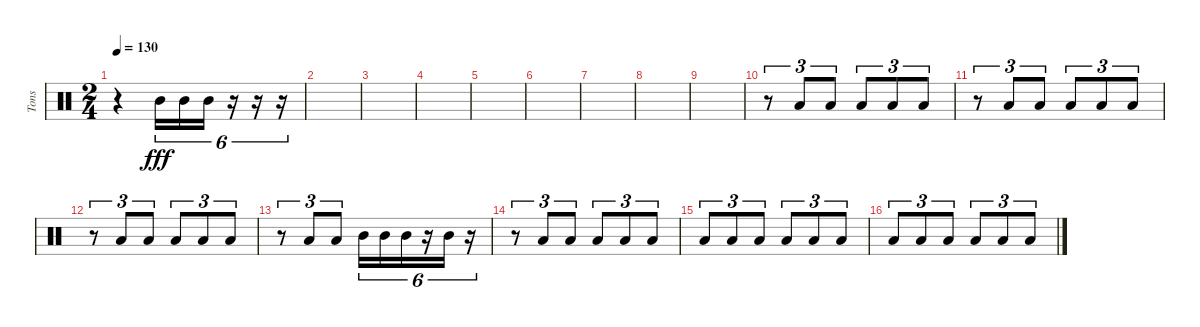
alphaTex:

\track ("Tons" "Tons") {instrument percussion}
\staff {score}
\articulation defaults
\ts (2 4)
\tempo 130
\clef neutral
\ks c
r.4{dy fff} "Mid Tom (hit)".16{tu (6 4)} "Mid Tom (hit)".16{tu (6 4)} "Mid Tom (hit)".16{tu (6 4)} r.16{tu (6 4)} r.16{tu (6 4)} r.16{tu (6 4)} |
|
|
|
|
|
|
|
|
r.8{tu (3 2)} "Low Floor Tom (hit)".8{tu (3 2)} "Low Floor Tom (hit)".8{tu (3 2)} "Low Floor Tom (hit)".8{tu (3 2)} "Low Floor Tom (hit)".8{tu (3 2)} "Low Floor Tom (hit)".8{tu (3 2)} |
r.8{tu (3 2)} "Low Floor Tom (hit)".8{tu (3 2)} "Low Floor Tom (hit)".8{tu (3 2)} "Low Floor Tom (hit)".8{tu (3 2)} "Low Floor Tom (hit)".8{tu (3 2)} "Low Floor Tom (hit)".8{tu (3 2)} |
r.8{tu (3 2)} "Low Floor Tom (hit)".8{tu (3 2)} "Low Floor Tom (hit)".8{tu (3 2)} "Low Floor Tom (hit)".8{tu (3 2)} "Low Floor Tom (hit)".8{tu (3 2)} "Low Floor Tom (hit)".8{tu (3 2)} |
r.8{tu (3 2)} "Low Floor Tom (hit)".8{tu (3 2)} "Low Floor Tom (hit)".8{tu (3 2)} "Mid Tom (hit)".16{tu (6 4)} "Mid Tom (hit)".16{tu (6 4)} "Mid Tom (hit)".16{tu (6 4)} r.16{tu (6 4)} "Mid Tom (hit)".16{tu (6 4)} r.16{tu (6 4)} |
r.8{tu (3 2)} "Low Floor Tom (hit)".8{tu (3 2)} "Low Floor Tom (hit)".8{tu (3 2)} "Low Floor Tom (hit)".8{tu (3 2)} "Low Floor Tom (hit)".8{tu (3 2)} "Low Floor Tom (hit)".8{tu (3 2)} |
"Low Floor Tom (hit)".8{tu (3 2)} "Low Floor Tom (hit)".8{tu (3 2)} "Low Floor Tom (hit)".8{tu (3 2)} "Low Floor Tom (hit)".8{tu (3 2)} "Low Floor Tom (hit)".8{tu (3 2)} "Low Floor Tom (hit)".8{tu (3 2)} |
"Low Floor Tom (hit)".8{tu (3 2)} "Low Floor Tom (hit)".8{tu (3 2)} "Low Floor Tom (hit)".8{tu (3 2)} "Low Floor Tom (hit)".8{tu (3 2)} "Low Floor Tom (hit)".8{tu (3 2)} "Low Floor Tom (hit)".8{tu (3 2)}
